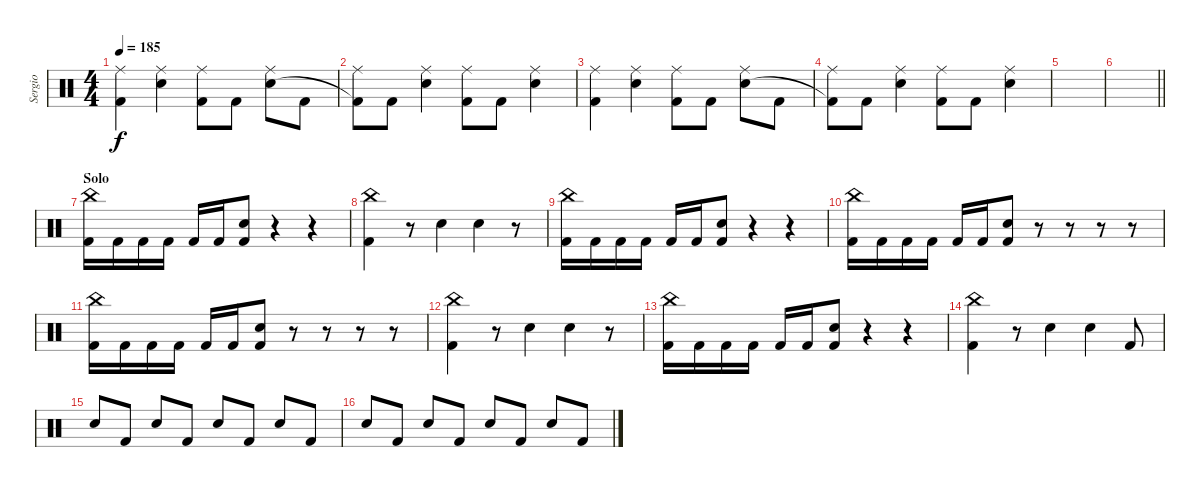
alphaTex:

\track ("Sergio" "Sergio") {instrument percussion}
\staff {score}
\articulation defaults
\ts (4 4)
\tempo 185
\clef neutral
\ks c
("Ride (middle)" "Kick (hit) 2").4{dy f} ("Ride (middle)" "Electric Snare (hit)").4 ("Ride (middle)" "Kick (hit) 2").8 "Kick (hit) 2".8 ("Ride (middle)" "Electric Snare (hit)").8 "Kick (hit) 2".8 |
("Ride (middle)" "Kick (hit) 2"{t}).8 "Kick (hit) 2".8 ("Ride (middle)" "Electric Snare (hit)").4 ("Ride (middle)" "Kick (hit) 2").8 "Kick (hit) 2".8 ("Ride (middle)" "Electric Snare (hit)").4 |
("Ride (middle)" "Kick (hit) 2").4 ("Ride (middle)" "Electric Snare (hit)").4 ("Ride (middle)" "Kick (hit) 2").8 "Kick (hit) 2".8 ("Ride (middle)" "Electric Snare (hit)").8 "Kick (hit) 2".8 |
("Ride (middle)" "Kick (hit) 2"{t}).8 "Kick (hit) 2".8 ("Ride (middle)" "Electric Snare (hit)").4 ("Ride (middle)" "Kick (hit) 2").8 "Kick (hit) 2".8 ("Ride (middle)" "Electric Snare (hit)").4 |
|
\barLineRight lightlight
|
\section ("" "Solo")
("China (hit)" "Kick (hit) 2").16 "Kick (hit) 2".16 "Kick (hit) 2".16 "Kick (hit) 2".16 "Kick (hit) 2".16 "Kick (hit) 2".16 ("Electric Snare (hit)" "Kick (hit) 2").8 r.4 r.4 |
("China (hit)" "Kick (hit) 2").4 r.8 "Electric Snare (hit)".4 "Electric Snare (hit)".4 r.8 |
("China (hit)" "Kick (hit) 2").16 "Kick (hit) 2".16 "Kick (hit) 2".16 "Kick (hit) 2".16 "Kick (hit) 2".16 "Kick (hit) 2".16 ("Electric Snare (hit)" "Kick (hit) 2").8 r.4 r.4 |
("China (hit)" "Kick (hit) 2").16 "Kick (hit) 2".16 "Kick (hit) 2".16 "Kick (hit) 2".16 "Kick (hit) 2".16 "Kick (hit) 2".16 ("Electric Snare (hit)" "Kick (hit) 2").8 r.8 r.8 r.8 r.8 |
("China (hit)" "Kick (hit) 2").16 "Kick (hit) 2".16 "Kick (hit) 2".16 "Kick (hit) 2".16 "Kick (hit) 2".16 "Kick (hit) 2".16 ("Electric Snare (hit)" "Kick (hit) 2").8 r.8 r.8 r.8 r.8 |
("China (hit)" "Kick (hit) 2").4 r.8 "Electric Snare (hit)".4 "Electric Snare (hit)".4 r.8 |
("China (hit)" "Kick (hit) 2").16 "Kick (hit) 2".16 "Kick (hit) 2".16 "Kick (hit) 2".16 "Kick (hit) 2".16 "Kick (hit) 2".16 ("Electric Snare (hit)" "Kick (hit) 2").8 r.4 r.4 |
("China (hit)" "Kick (hit) 2").4 r.8 "Electric Snare (hit)".4 "Electric Snare (hit)".4 "Kick (hit) 2".8 |
"Electric Snare (hit)".8 "Kick (hit) 2".8 "Electric Snare (hit)".8 "Kick (hit) 2".8 "Electric Snare (hit)".8 "Kick (hit) 2".8 "Electric Snare (hit)".8 "Kick (hit) 2".8 |
"Electric Snare (hit)".8 "Kick (hit) 2".8 "Electric Snare (hit)".8 "Kick (hit) 2".8 "Electric Snare (hit)".8 "Kick (hit) 2".8 "Electric Snare (hit)".8 "Kick (hit) 2".8
